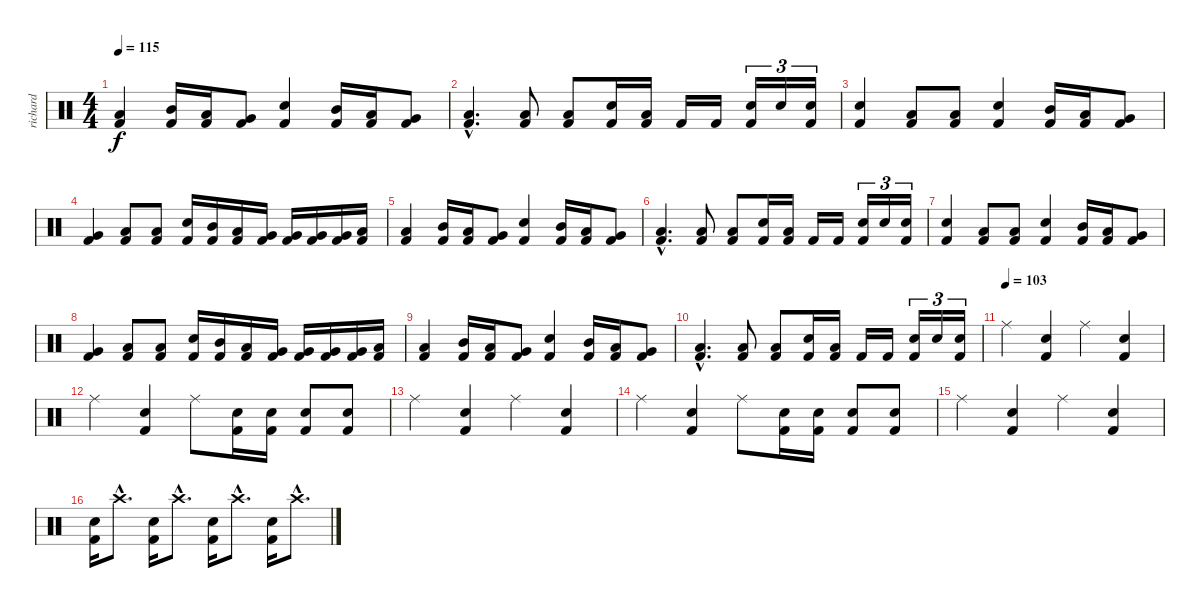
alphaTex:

\track ("richard" "richard") {instrument percussion}
\staff {score}
\articulation defaults
\ts (4 4)
\tempo 115
\clef neutral
\ks c
("Low Tom (hit)" "Kick (hit) 2").4{dy f} ("Mid Tom (hit)" "Kick (hit) 2").16 ("Low Tom (hit)" "Kick (hit) 2").16 ("Very Low Tom (hit)" "Kick (hit) 2").8 ("Electric Snare (hit)" "Kick (hit) 2").4 ("Mid Tom (hit)" "Kick (hit) 2").16 ("Low Tom (hit)" "Kick (hit) 2").16 ("Very Low Tom (hit)" "Kick (hit) 2").8 |
("Low Tom (hit)"{hac} "Kick (hit) 2"{hac}).4{d} ("Low Tom (hit)" "Kick (hit) 2").8 ("Low Tom (hit)" "Kick (hit) 2").8 ("Electric Snare (hit)" "Kick (hit) 2").16 ("Low Tom (hit)" "Kick (hit) 2").16 "Kick (hit) 2".16 "Kick (hit) 2".16 ("Electric Snare (hit)" "Kick (hit) 2").16{tu (3 2)} "Electric Snare (hit)".16{tu (3 2)} ("Electric Snare (hit)" "Kick (hit) 2").16{tu (3 2)} |
("Electric Snare (hit)" "Kick (hit) 2").4 ("Low Tom (hit)" "Kick (hit) 2").8 ("Low Tom (hit)" "Kick (hit) 2").8 ("Electric Snare (hit)" "Kick (hit) 2").4 ("Mid Tom (hit)" "Kick (hit) 2").16 ("Low Tom (hit)" "Kick (hit) 2").16 ("Very Low Tom (hit)" "Kick (hit) 2").8 |
("Very Low Tom (hit)" "Kick (hit) 2").4 ("Low Tom (hit)" "Kick (hit) 2").8 ("Low Tom (hit)" "Kick (hit) 2").8 ("Snare (hit) 2" "Kick (hit) 2").16 ("Mid Tom (hit)" "Kick (hit) 2").16 ("Low Tom (hit)" "Kick (hit) 2").16 ("Very Low Tom (hit)" "Kick (hit) 2").16 ("Very Low Tom (hit)" "Kick (hit) 2").16 ("Very Low Tom (hit)" "Kick (hit) 2").16 ("Very Low Tom (hit)" "Kick (hit) 2").16 ("Low Tom (hit)" "Kick (hit) 2").16 |
("Low Tom (hit)" "Kick (hit) 2").4 ("Mid Tom (hit)" "Kick (hit) 2").16 ("Low Tom (hit)" "Kick (hit) 2").16 ("Very Low Tom (hit)" "Kick (hit) 2").8 ("Electric Snare (hit)" "Kick (hit) 2").4 ("Mid Tom (hit)" "Kick (hit) 2").16 ("Low Tom (hit)" "Kick (hit) 2").16 ("Very Low Tom (hit)" "Kick (hit) 2").8 |
("Low Tom (hit)"{hac} "Kick (hit) 2"{hac}).4{d} ("Low Tom (hit)" "Kick (hit) 2").8 ("Low Tom (hit)" "Kick (hit) 2").8 ("Electric Snare (hit)" "Kick (hit) 2").16 ("Low Tom (hit)" "Kick (hit) 2").16 "Kick (hit) 2".16 "Kick (hit) 2".16 ("Electric Snare (hit)" "Kick (hit) 2").16{tu (3 2)} "Electric Snare (hit)".16{tu (3 2)} ("Electric Snare (hit)" "Kick (hit) 2").16{tu (3 2)} |
("Electric Snare (hit)" "Kick (hit) 2").4 ("Low Tom (hit)" "Kick (hit) 2").8 ("Low Tom (hit)" "Kick (hit) 2").8 ("Electric Snare (hit)" "Kick (hit) 2").4 ("Mid Tom (hit)" "Kick (hit) 2").16 ("Low Tom (hit)" "Kick (hit) 2").16 ("Very Low Tom (hit)" "Kick (hit) 2").8 |
("Very Low Tom (hit)" "Kick (hit) 2").4 ("Low Tom (hit)" "Kick (hit) 2").8 ("Low Tom (hit)" "Kick (hit) 2").8 ("Snare (hit) 2" "Kick (hit) 2").16 ("Mid Tom (hit)" "Kick (hit) 2").16 ("Low Tom (hit)" "Kick (hit) 2").16 ("Very Low Tom (hit)" "Kick (hit) 2").16 ("Very Low Tom (hit)" "Kick (hit) 2").16 ("Very Low Tom (hit)" "Kick (hit) 2").16 ("Very Low Tom (hit)" "Kick (hit) 2").16 ("Low Tom (hit)" "Kick (hit) 2").16 |
("Low Tom (hit)" "Kick (hit) 2").4 ("Mid Tom (hit)" "Kick (hit) 2").16 ("Low Tom (hit)" "Kick (hit) 2").16 ("Very Low Tom (hit)" "Kick (hit) 2").8 ("Electric Snare (hit)" "Kick (hit) 2").4 ("Mid Tom (hit)" "Kick (hit) 2").16 ("Low Tom (hit)" "Kick (hit) 2").16 ("Very Low Tom (hit)" "Kick (hit) 2").8 |
("Low Tom (hit)"{hac} "Kick (hit) 2"{hac}).4{d} ("Low Tom (hit)" "Kick (hit) 2").8 ("Low Tom (hit)" "Kick (hit) 2").8 ("Electric Snare (hit)" "Kick (hit) 2").16 ("Low Tom (hit)" "Kick (hit) 2").16 "Kick (hit) 2".16 "Kick (hit) 2".16 ("Electric Snare (hit)" "Kick (hit) 2").16{tu (3 2)} "Electric Snare (hit)".16{tu (3 2)} ("Electric Snare (hit)" "Kick (hit) 2").16{tu (3 2)} |
\tempo (103)
"Ride (middle)".4 ("Snare (hit) 2" "Kick (hit) 2").4 "Ride (middle)".4 ("Snare (hit) 2" "Kick (hit) 2").4 |
"Ride (middle)".4 ("Snare (hit) 2" "Kick (hit) 2").4 "Ride (middle)".8 ("Snare (hit) 2" "Kick (hit) 2").16 ("Snare (hit) 2" "Kick (hit) 2").16 ("Snare (hit) 2" "Kick (hit) 2").8 ("Snare (hit) 2" "Kick (hit) 2").8 |
"Ride (middle)".4 ("Snare (hit) 2" "Kick (hit) 2").4 "Ride (middle)".4 ("Snare (hit) 2" "Kick (hit) 2").4 |
"Ride (middle)".4 ("Snare (hit) 2" "Kick (hit) 2").4 "Ride (middle)".8 ("Snare (hit) 2" "Kick (hit) 2").16 ("Snare (hit) 2" "Kick (hit) 2").16 ("Snare (hit) 2" "Kick (hit) 2").8 ("Snare (hit) 2" "Kick (hit) 2").8 |
"Ride (middle)".4 ("Snare (hit) 2" "Kick (hit) 2").4 "Ride (middle)".4 ("Snare (hit) 2" "Kick (hit) 2").4 |
("Snare (hit) 2" "Kick (hit) 2").16 "Crash high (hit)"{hac}.8{d} ("Snare (hit) 2" "Kick (hit) 2").16 "Crash high (hit)"{hac}.8{d} ("Snare (hit) 2" "Kick (hit) 2").16 "Crash high (hit)"{hac}.8{d} ("Snare (hit) 2" "Kick (hit) 2").16 "Crash high (hit)"{hac}.8{d}
